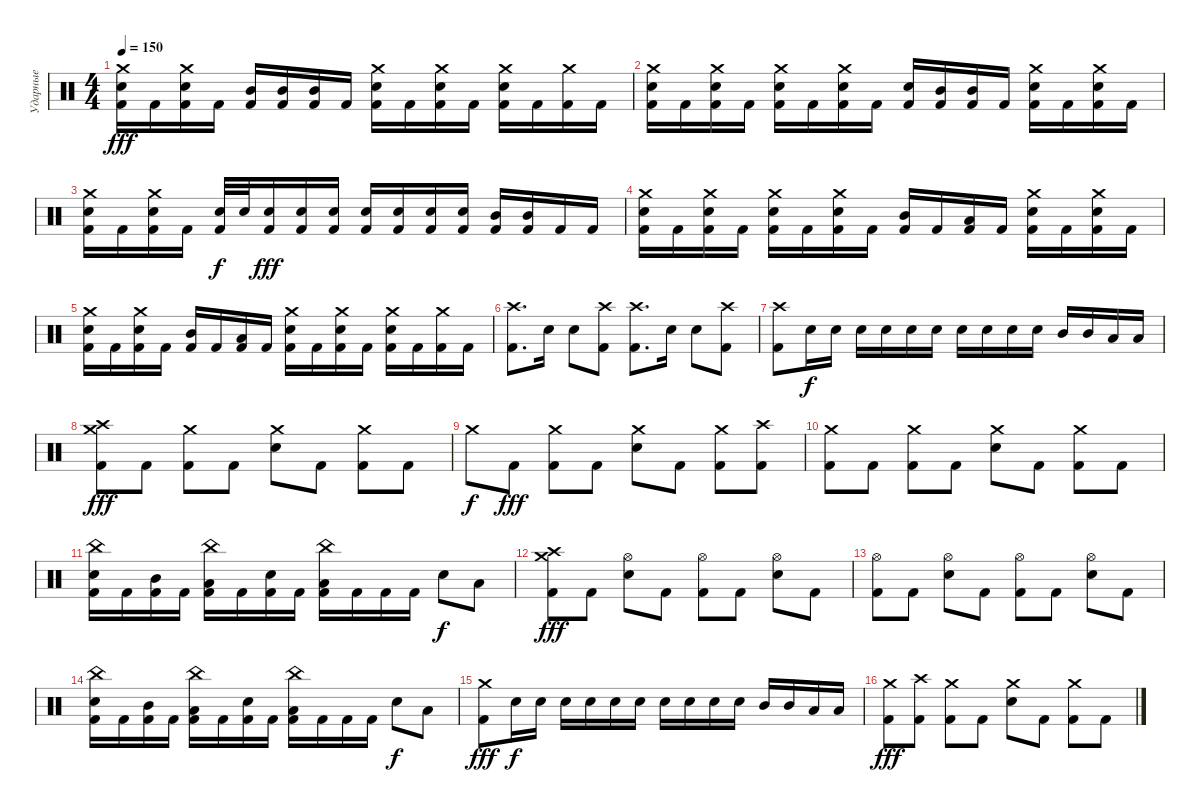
\track ("Ударные" "Ударные") {instrument percussion}
\staff {score}
\articulation defaults
\ts (4 4)
\tempo 150
\clef neutral
\ks c
("Crash medium (hit)" "Electric Snare (hit)" "Kick (hit) 2").16{dy fff} "Kick (hit) 2".16 ("Crash medium (hit)" "Electric Snare (hit)" "Kick (hit) 2").16 "Kick (hit) 2".16 ("Mid Tom (hit)" "Kick (hit) 2").16 ("Mid Tom (hit)" "Kick (hit) 2").16 ("Mid Tom (hit)" "Kick (hit) 2").16 "Kick (hit) 2".16 ("Crash medium (hit)" "Electric Snare (hit)" "Kick (hit) 2").16 "Kick (hit) 2".16 ("Crash medium (hit)" "Electric Snare (hit)" "Kick (hit) 2").16 "Kick (hit) 2".16 ("Crash medium (hit)" "Electric Snare (hit)" "Kick (hit) 2").16 "Kick (hit) 2".16 ("Crash medium (hit)" "Kick (hit) 2").16 "Kick (hit) 2".16 |
("Crash medium (hit)" "Electric Snare (hit)" "Kick (hit) 2").16 "Kick (hit) 2".16 ("Crash medium (hit)" "Electric Snare (hit)" "Kick (hit) 2").16 "Kick (hit) 2".16 ("Crash medium (hit)" "Electric Snare (hit)" "Kick (hit) 2").16 "Kick (hit) 2".16 ("Crash medium (hit)" "Electric Snare (hit)" "Kick (hit) 2").16 "Kick (hit) 2".16 ("Electric Snare (hit)" "Kick (hit) 2").16 ("Mid Tom (hit)" "Kick (hit) 2").16 ("Mid Tom (hit)" "Kick (hit) 2").16 "Kick (hit) 2".16 ("Crash medium (hit)" "Electric Snare (hit)" "Kick (hit) 2").16 "Kick (hit) 2".16 ("Crash medium (hit)" "Electric Snare (hit)" "Kick (hit) 2").16 "Kick (hit) 2".16 |
("Crash medium (hit)" "Electric Snare (hit)" "Kick (hit) 2").16 "Kick (hit) 2".16 ("Crash medium (hit)" "Electric Snare (hit)" "Kick (hit) 2").16 "Kick (hit) 2".16 ("Electric Snare (hit)" "Kick (hit) 2").32{dy f} "Electric Snare (hit)".32 ("Electric Snare (hit)" "Kick (hit) 2").16{dy fff} ("Electric Snare (hit)" "Kick (hit) 2").16 ("Electric Snare (hit)" "Kick (hit) 2").16 ("Electric Snare (hit)" "Kick (hit) 2").16 ("Electric Snare (hit)" "Kick (hit) 2").16 ("Electric Snare (hit)" "Kick (hit) 2").16 ("Electric Snare (hit)" "Kick (hit) 2").16 ("Mid Tom (hit)" "Kick (hit) 2").16 ("Mid Tom (hit)" "Kick (hit) 2").16 "Kick (hit) 2".16 "Kick (hit) 2".16 |
("Crash medium (hit)" "Electric Snare (hit)" "Kick (hit) 2").16 "Kick (hit) 2".16 ("Crash medium (hit)" "Electric Snare (hit)" "Kick (hit) 2").16 "Kick (hit) 2".16 ("Crash medium (hit)" "Electric Snare (hit)" "Kick (hit) 2").16 "Kick (hit) 2".16 ("Crash medium (hit)" "Electric Snare (hit)" "Kick (hit) 2").16 "Kick (hit) 2".16 ("Mid Tom (hit)" "Kick (hit) 2").16 "Kick (hit) 2".16 ("Low Floor Tom (hit)" "Kick (hit) 2").16 "Kick (hit) 2".16 ("Crash medium (hit)" "Electric Snare (hit)" "Kick (hit) 2").16 "Kick (hit) 2".16 ("Crash medium (hit)" "Electric Snare (hit)" "Kick (hit) 2").16 "Kick (hit) 2".16 |
("Crash medium (hit)" "Electric Snare (hit)" "Kick (hit) 2").16 "Kick (hit) 2".16 ("Crash medium (hit)" "Electric Snare (hit)" "Kick (hit) 2").16 "Kick (hit) 2".16 ("Mid Tom (hit)" "Kick (hit) 2").16 "Kick (hit) 2".16 ("Low Floor Tom (hit)" "Kick (hit) 2").16 "Kick (hit) 2".16 ("Crash medium (hit)" "Electric Snare (hit)" "Kick (hit) 2").16 "Kick (hit) 2".16 ("Crash medium (hit)" "Electric Snare (hit)" "Kick (hit) 2").16 "Kick (hit) 2".16 ("Crash medium (hit)" "Electric Snare (hit)" "Kick (hit) 2").16 "Kick (hit) 2".16 ("Crash medium (hit)" "Kick (hit) 2").16 "Kick (hit) 2".16 |
("Crash high (hit)" "Kick (hit) 2").8{d} "Electric Snare (hit)".16 "Electric Snare (hit)".8 ("Crash high (hit)" "Kick (hit) 2").8 ("Crash high (hit)" "Kick (hit) 2").8{d} "Electric Snare (hit)".16 "Electric Snare (hit)".8 ("Crash high (hit)" "Kick (hit) 2").8 |
("Crash high (hit)" "Kick (hit) 2").8 "Electric Snare (hit)".16{dy f} "Electric Snare (hit)".16 "Electric Snare (hit)".16 "Electric Snare (hit)".16 "Electric Snare (hit)".16 "Electric Snare (hit)".16 "Electric Snare (hit)".16 "Electric Snare (hit)".16 "Electric Snare (hit)".16 "Electric Snare (hit)".16 "Mid Tom (hit)".16 "Mid Tom (hit)".16 "Low Floor Tom (hit)".16 "Low Floor Tom (hit)".16 |
("Crash high (hit)" "Crash medium (hit)" "Kick (hit) 2").8{dy fff} "Kick (hit) 2".8 ("Crash medium (hit)" "Kick (hit) 2").8 "Kick (hit) 2".8 ("Crash medium (hit)" "Electric Snare (hit)").8 "Kick (hit) 2".8 ("Crash medium (hit)" "Kick (hit) 2").8 "Kick (hit) 2".8 |
"Crash medium (hit)".8{dy f} "Kick (hit) 2".8{dy fff} ("Crash medium (hit)" "Kick (hit) 2").8 "Kick (hit) 2".8 ("Crash medium (hit)" "Electric Snare (hit)").8 "Kick (hit) 2".8 ("Crash medium (hit)" "Kick (hit) 2").8 ("Crash high (hit)" "Kick (hit) 2").8 |
("Crash medium (hit)" "Kick (hit) 2").8 "Kick (hit) 2".8 ("Crash medium (hit)" "Kick (hit) 2").8 "Kick (hit) 2".8 ("Crash medium (hit)" "Electric Snare (hit)").8 "Kick (hit) 2".8 ("Crash medium (hit)" "Kick (hit) 2").8 "Kick (hit) 2".8 |
("China (hit)" "Electric Snare (hit)" "Kick (hit) 2").16 "Kick (hit) 2".16 ("Mid Tom (hit)" "Kick (hit) 2").16 "Kick (hit) 2".16 ("China (hit)" "Low Floor Tom (hit)" "Kick (hit) 2").16 "Kick (hit) 2".16 ("Electric Snare (hit)" "Kick (hit) 2").16 "Kick (hit) 2".16 ("China (hit)" "Low Floor Tom (hit)" "Kick (hit) 2").16 "Kick (hit) 2".16 "Kick (hit) 2".16 "Kick (hit) 2".16 "Electric Snare (hit)".8{dy f} "Low Floor Tom (hit)".8 |
("Crash high (hit)" "Crash medium (hit)" "Kick (hit) 2").8{dy fff} "Kick (hit) 2".8 ("Hi-Hat (open)" "Electric Snare (hit)").8 "Kick (hit) 2".8 ("Hi-Hat (open)" "Kick (hit) 2").8 "Kick (hit) 2".8 ("Hi-Hat (open)" "Electric Snare (hit)").8 "Kick (hit) 2".8 |
("Hi-Hat (open)" "Kick (hit) 2").8 "Kick (hit) 2".8 ("Hi-Hat (open)" "Electric Snare (hit)").8 "Kick (hit) 2".8 ("Hi-Hat (open)" "Kick (hit) 2").8 "Kick (hit) 2".8 ("Hi-Hat (open)" "Electric Snare (hit)").8 "Kick (hit) 2".8 |
("China (hit)" "Electric Snare (hit)" "Kick (hit) 2").16 "Kick (hit) 2".16 ("Mid Tom (hit)" "Kick (hit) 2").16 "Kick (hit) 2".16 ("China (hit)" "Low Floor Tom (hit)" "Kick (hit) 2").16 "Kick (hit) 2".16 ("Electric Snare (hit)" "Kick (hit) 2").16 "Kick (hit) 2".16 ("China (hit)" "Low Floor Tom (hit)" "Kick (hit) 2").16 "Kick (hit) 2".16 "Kick (hit) 2".16 "Kick (hit) 2".16 "Electric Snare (hit)".8{dy f} "Low Floor Tom (hit)".8 |
("Crash medium (hit)" "Kick (hit) 2").8{dy fff} "Electric Snare (hit)".16{dy f} "Electric Snare (hit)".16 "Electric Snare (hit)".16 "Electric Snare (hit)".16 "Electric Snare (hit)".16 "Electric Snare (hit)".16 "Electric Snare (hit)".16 "Electric Snare (hit)".16 "Electric Snare (hit)".16 "Electric Snare (hit)".16 "Mid Tom (hit)".16 "Mid Tom (hit)".16 "Low Floor Tom (hit)".16 "Low Floor Tom (hit)".16 |
("Crash medium (hit)" "Kick (hit) 2").8{dy fff} ("Crash high (hit)" "Kick (hit) 2").8 ("Crash medium (hit)" "Kick (hit) 2").8 "Kick (hit) 2".8 ("Crash medium (hit)" "Electric Snare (hit)").8 "Kick (hit) 2".8 ("Crash medium (hit)" "Kick (hit) 2").8 "Kick (hit) 2".8
